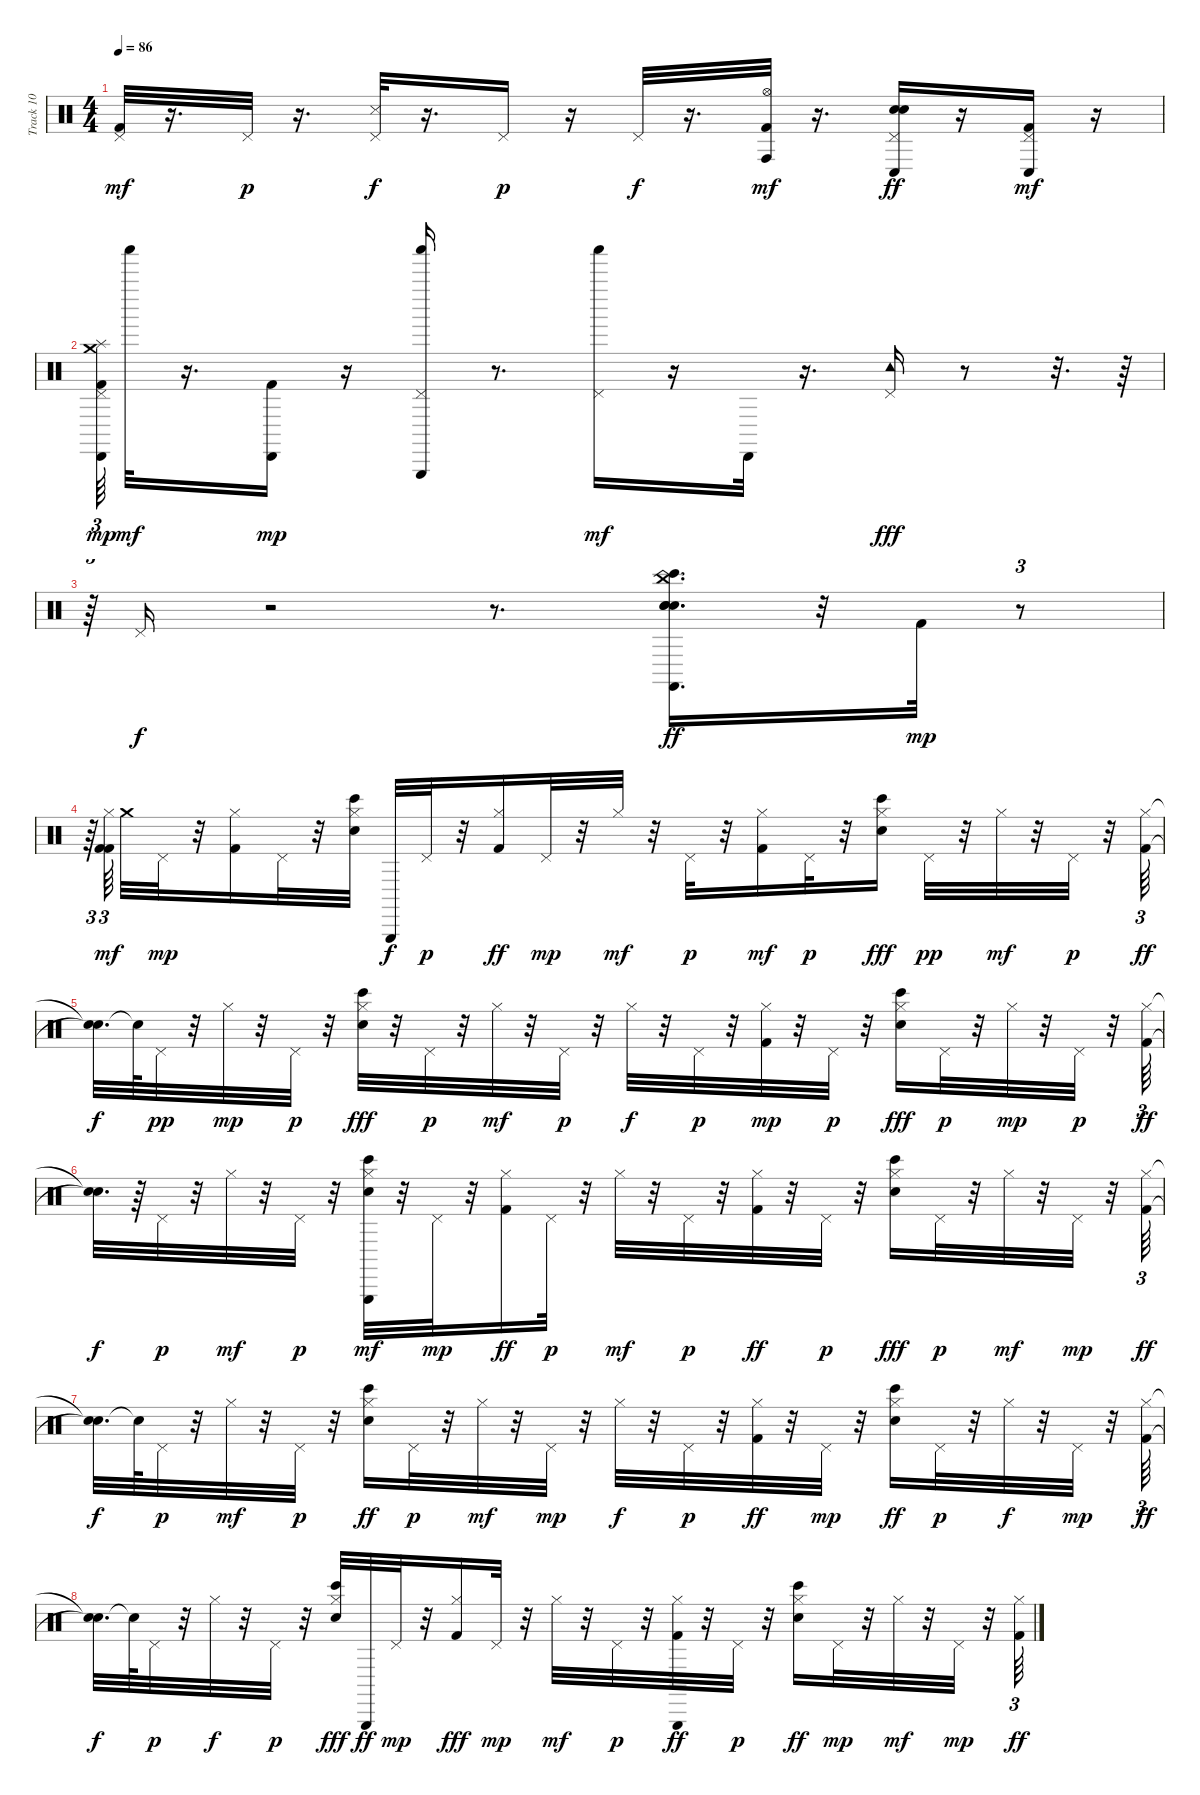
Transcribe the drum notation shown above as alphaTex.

\track ("Track 10" "Track 10") {instrument percussion}
\staff {score}
\articulation defaults
\ts (4 4)
\tempo 86
\clef neutral
\ks c
("Pedal Hi-Hat (hit)" "Kick (hit) 2").32{dy mf} r.16{d} "Pedal Hi-Hat (hit)".32{dy p} r.16{d} ("Pedal Hi-Hat (hit)" "Snare (side stick) 3").32{dy f} r.16{d} "Pedal Hi-Hat (hit)".16{dy p} r.16 "Pedal Hi-Hat (hit)".32{dy f} r.16{d} ("Hi-Hat (open)" "Conga high (hit)" "Kick (hit) 2").32{dy mf} r.16{d} ("Pedal Hi-Hat (hit)" "Snare (hit)" "Conga low (hit)" "Electric Snare (hit)").16{dy ff} r.16 ("Pedal Hi-Hat (hit)" "Conga low (hit)" "Kick (hit) 2").16{dy mf} r.16 |
("Pedal Hi-Hat (hit)" "Cabasa (hit)" "Splash (hit)" "Crash medium (hit)" "Kick (hit) 2").64{tu (3 2) dy mp} "Shaker (hit)".32{dy mf} r.16{d} ("Kick (hit) 2" "Cabasa (hit)").16{dy mp} r.16 ("Pedal Hi-Hat (hit)" "Triangle (hit)" "Shaker (hit)").16 r.8{d} ("Pedal Hi-Hat (hit)" "Shaker (hit)").16{dy mf} r.16 "Cabasa (hit)".32 r.16{d} ("Pedal Hi-Hat (hit)" "Tambourine (hit)").16{dy fff} r.8 r.32{d} r.64 |
r.64{tu (3 2)} "Pedal Hi-Hat (hit)".16{dy f} r.2 r.8{d} ("China (hit)" "Snare (hit)" "Hand Clap (hit)" "Snare (hit)" "Castanets (hit)" "Bongo High (hit)").16{d dy ff} r.32 "Kick (hit) 2".32{dy mp} r.8{tu (3 2)} |
r.64{tu (3 2)} ("Hi-Hat (closed)" "Kick (hit) 2" "Kick (hit) 2").64{tu (3 2) dy mf beam splitsecondary} "Crash medium (hit)".32 "Pedal Hi-Hat (hit)".32{dy mp} r.32 ("Hi-Hat (closed)" "Kick (hit) 2").16 "Pedal Hi-Hat (hit)".32 r.32 ("Hi-Hat (closed)" "Electric Snare (hit)" "Bongo High (hit)").32 "Triangle (hit)".32{dy f} "Pedal Hi-Hat (hit)".32{dy p} r.32 ("Hi-Hat (closed)" "Kick (hit) 2").16{dy ff} "Pedal Hi-Hat (hit)".32{dy mp} r.32 "Hi-Hat (closed)".32{dy mf} r.32 "Pedal Hi-Hat (hit)".32{dy p} r.32 ("Hi-Hat (closed)" "Kick (hit) 2").16{dy mf} "Pedal Hi-Hat (hit)".32{dy p} r.32 ("Hi-Hat (closed)" "Electric Snare (hit)" "Bongo High (hit)").16{dy fff} "Pedal Hi-Hat (hit)".32{dy pp} r.32 "Hi-Hat (closed)".32{dy mf} r.32 "Pedal Hi-Hat (hit)".32{dy p} r.32 ("Hi-Hat (closed)" "Kick (hit) 2").64{tu (3 2) dy ff} |
("Snare (hit)"{t} "Snare (hit)"{t}).32{d dy f} "Snare (hit)"{t}.64 "Pedal Hi-Hat (hit)".32{dy pp} r.32 "Hi-Hat (closed)".32{dy mp} r.32 "Pedal Hi-Hat (hit)".32{dy p} r.32 ("Hi-Hat (closed)" "Electric Snare (hit)" "Bongo High (hit)").32{dy fff} r.32 "Pedal Hi-Hat (hit)".32{dy p} r.32 "Hi-Hat (closed)".32{dy mf} r.32 "Pedal Hi-Hat (hit)".32{dy p} r.32 "Hi-Hat (closed)".32{dy f} r.32 "Pedal Hi-Hat (hit)".32{dy p} r.32 ("Hi-Hat (closed)" "Kick (hit) 2").32{dy mp} r.32 "Pedal Hi-Hat (hit)".32{dy p} r.32 ("Hi-Hat (closed)" "Electric Snare (hit)" "Bongo High (hit)").16{dy fff} "Pedal Hi-Hat (hit)".32{dy p} r.32 "Hi-Hat (closed)".32{dy mp} r.32 "Pedal Hi-Hat (hit)".32{dy p} r.32 ("Hi-Hat (closed)" "Kick (hit) 2").64{tu (3 2) dy ff} |
("Snare (hit)"{t} "Snare (hit)"{t}).32{d dy f} r.64 "Pedal Hi-Hat (hit)".32{dy p} r.32 "Hi-Hat (closed)".32{dy mf} r.32 "Pedal Hi-Hat (hit)".32{dy p} r.32 ("Triangle (hit)" "Hi-Hat (closed)" "Electric Snare (hit)" "Bongo High (hit)").32{dy mf} r.32 "Pedal Hi-Hat (hit)".32{dy mp} r.32 ("Hi-Hat (closed)" "Kick (hit) 2").16{dy ff} "Pedal Hi-Hat (hit)".32{dy p} r.32 "Hi-Hat (closed)".32{dy mf} r.32 "Pedal Hi-Hat (hit)".32{dy p} r.32 ("Hi-Hat (closed)" "Kick (hit) 2").32{dy ff} r.32 "Pedal Hi-Hat (hit)".32{dy p} r.32 ("Hi-Hat (closed)" "Electric Snare (hit)" "Bongo High (hit)").16{dy fff} "Pedal Hi-Hat (hit)".32{dy p} r.32 "Hi-Hat (closed)".32{dy mf} r.32 "Pedal Hi-Hat (hit)".32{dy mp} r.32 ("Hi-Hat (closed)" "Kick (hit) 2").64{tu (3 2) dy ff} |
("Snare (hit)"{t} "Snare (hit)"{t}).32{d dy f} "Snare (hit)"{t}.64 "Pedal Hi-Hat (hit)".32{dy p} r.32 "Hi-Hat (closed)".32{dy mf} r.32 "Pedal Hi-Hat (hit)".32{dy p} r.32 ("Hi-Hat (closed)" "Electric Snare (hit)" "Bongo High (hit)").16{dy ff} "Pedal Hi-Hat (hit)".32{dy p} r.32 "Hi-Hat (closed)".32{dy mf} r.32 "Pedal Hi-Hat (hit)".32{dy mp} r.32 "Hi-Hat (closed)".32{dy f} r.32 "Pedal Hi-Hat (hit)".32{dy p} r.32 ("Hi-Hat (closed)" "Kick (hit) 2").32{dy ff} r.32 "Pedal Hi-Hat (hit)".32{dy mp} r.32 ("Hi-Hat (closed)" "Electric Snare (hit)" "Bongo High (hit)").16{dy ff} "Pedal Hi-Hat (hit)".32{dy p} r.32 "Hi-Hat (closed)".32{dy f} r.32 "Pedal Hi-Hat (hit)".32{dy mp} r.32 ("Hi-Hat (closed)" "Kick (hit) 2").64{tu (3 2) dy ff} |
("Snare (hit)"{t} "Snare (hit)"{t}).32{d dy f} "Snare (hit)"{t}.64 "Pedal Hi-Hat (hit)".32{dy p} r.32 "Hi-Hat (closed)".32{dy f} r.32 "Pedal Hi-Hat (hit)".32{dy p} r.32 ("Hi-Hat (closed)" "Bongo High (hit)" "Electric Snare (hit)").32{dy fff} "Triangle (hit)".32{dy ff} "Pedal Hi-Hat (hit)".32{dy mp} r.32 ("Hi-Hat (closed)" "Kick (hit) 2").16{dy fff} "Pedal Hi-Hat (hit)".32{dy mp} r.32 "Hi-Hat (closed)".32{dy mf} r.32 "Pedal Hi-Hat (hit)".32{dy p} r.32 ("Triangle (hit)" "Hi-Hat (closed)" "Kick (hit) 2").32{dy ff} r.32 "Pedal Hi-Hat (hit)".32{dy p} r.32 ("Hi-Hat (closed)" "Bongo High (hit)" "Electric Snare (hit)").16{dy ff} "Pedal Hi-Hat (hit)".32{dy mp} r.32 "Hi-Hat (closed)".32{dy mf} r.32 "Pedal Hi-Hat (hit)".32{dy mp} r.32 ("Hi-Hat (closed)" "Kick (hit) 2").64{tu (3 2) dy ff}
